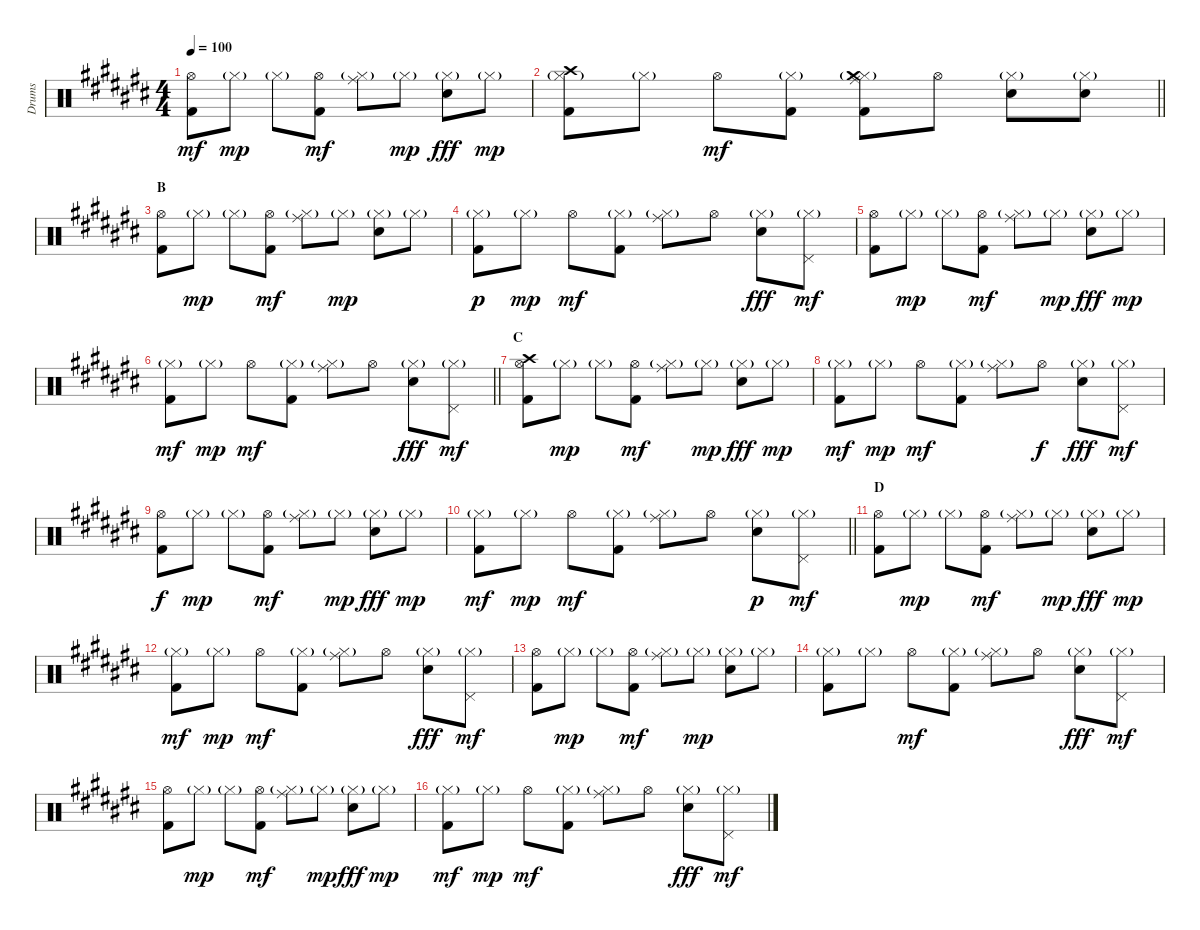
\track ("Drums" "Drums") {instrument percussion}
\staff {score}
\articulation defaults
\ts (4 4)
\tempo 100
\clef neutral
\ks c#
("Hi-Hat (open)" "Kick (hit) 2").8{dy mf} "Hi-Hat (closed)"{g}.8{dy mp} "Hi-Hat (closed)"{g}.8 ("Hi-Hat (open)" "Kick (hit) 2").8{dy mf} ("Hi-Hat (closed)"{g} "Ride (middle)").8 "Hi-Hat (closed)"{g}.8{dy mp} ("Hi-Hat (closed)"{g} "Snare (hit) 2").8{dy fff} "Hi-Hat (closed)"{g}.8{dy mp} |
\barLineRight lightlight
("Hi-Hat (closed)"{g} "Crash high (hit)" "Kick (hit) 2").8 "Hi-Hat (closed)"{g}.8 "Hi-Hat (open)".8{dy mf} ("Hi-Hat (closed)"{g} "Kick (hit) 2").8 ("Hi-Hat (closed)"{g} "Ride (middle)" "Crash medium (hit)" "Kick (hit) 2").8 "Hi-Hat (open)".8 ("Hi-Hat (closed)"{g} "Snare (hit) 2").8 ("Hi-Hat (closed)"{g} "Snare (hit) 2").8 |
\section ("" "B")
("Hi-Hat (open)" "Kick (hit) 2").8 "Hi-Hat (closed)"{g}.8{dy mp} "Hi-Hat (closed)"{g}.8 ("Hi-Hat (open)" "Kick (hit) 2").8{dy mf} ("Hi-Hat (closed)"{g} "Ride (middle)").8 "Hi-Hat (closed)"{g}.8{dy mp} ("Hi-Hat (closed)"{g} "Snare (hit) 2").8 "Hi-Hat (closed)"{g}.8 |
("Hi-Hat (closed)"{g} "Kick (hit) 2").8{dy p} "Hi-Hat (closed)"{g}.8{dy mp} "Hi-Hat (open)".8{dy mf} ("Hi-Hat (closed)"{g} "Kick (hit) 2").8 ("Hi-Hat (closed)"{g} "Ride (middle)").8 "Hi-Hat (open)".8 ("Hi-Hat (closed)"{g} "Snare (hit) 2").8{dy fff} ("Hi-Hat (closed)"{g} "Pedal Hi-Hat (hit)").8{dy mf} |
("Hi-Hat (open)" "Kick (hit) 2").8 "Hi-Hat (closed)"{g}.8{dy mp} "Hi-Hat (closed)"{g}.8 ("Hi-Hat (open)" "Kick (hit) 2").8{dy mf} ("Hi-Hat (closed)"{g} "Ride (middle)").8 "Hi-Hat (closed)"{g}.8{dy mp} ("Hi-Hat (closed)"{g} "Snare (hit) 2").8{dy fff} "Hi-Hat (closed)"{g}.8{dy mp} |
\barLineRight lightlight
("Hi-Hat (closed)"{g} "Kick (hit) 2").8{dy mf} "Hi-Hat (closed)"{g}.8{dy mp} "Hi-Hat (open)".8{dy mf} ("Hi-Hat (closed)"{g} "Kick (hit) 2").8 ("Hi-Hat (closed)"{g} "Ride (middle)").8 "Hi-Hat (open)".8 ("Hi-Hat (closed)"{g} "Snare (hit) 2").8{dy fff} ("Hi-Hat (closed)"{g} "Pedal Hi-Hat (hit)").8{dy mf} |
\section ("" "C")
("Hi-Hat (open)" "Crash high (hit)" "Kick (hit) 2").8 "Hi-Hat (closed)"{g}.8{dy mp} "Hi-Hat (closed)"{g}.8 ("Hi-Hat (open)" "Kick (hit) 2").8{dy mf} ("Hi-Hat (closed)"{g} "Ride (middle)").8 "Hi-Hat (closed)"{g}.8{dy mp} ("Hi-Hat (closed)"{g} "Snare (hit) 2").8{dy fff} "Hi-Hat (closed)"{g}.8{dy mp} |
("Hi-Hat (closed)"{g} "Kick (hit) 2").8{dy mf} "Hi-Hat (closed)"{g}.8{dy mp} "Hi-Hat (open)".8{dy mf} ("Hi-Hat (closed)"{g} "Kick (hit) 2").8 ("Hi-Hat (closed)"{g} "Ride (middle)").8 "Hi-Hat (open)".8{dy f} ("Hi-Hat (closed)"{g} "Snare (hit) 2").8{dy fff} ("Hi-Hat (closed)"{g} "Pedal Hi-Hat (hit)").8{dy mf} |
("Hi-Hat (open)" "Kick (hit) 2").8{dy f} "Hi-Hat (closed)"{g}.8{dy mp} "Hi-Hat (closed)"{g}.8 ("Hi-Hat (open)" "Kick (hit) 2").8{dy mf} ("Hi-Hat (closed)"{g} "Ride (middle)").8 "Hi-Hat (closed)"{g}.8{dy mp} ("Hi-Hat (closed)"{g} "Snare (hit) 2").8{dy fff} "Hi-Hat (closed)"{g}.8{dy mp} |
\barLineRight lightlight
("Hi-Hat (closed)"{g} "Kick (hit) 2").8{dy mf} "Hi-Hat (closed)"{g}.8{dy mp} "Hi-Hat (open)".8{dy mf} ("Hi-Hat (closed)"{g} "Kick (hit) 2").8 ("Hi-Hat (closed)"{g} "Ride (middle)").8 "Hi-Hat (open)".8 ("Hi-Hat (closed)"{g} "Electric Snare (hit)").8{dy p} ("Hi-Hat (closed)"{g} "Pedal Hi-Hat (hit)").8{dy mf} |
\section ("" "D")
("Hi-Hat (open)" "Kick (hit) 2").8 "Hi-Hat (closed)"{g}.8{dy mp} "Hi-Hat (closed)"{g}.8 ("Hi-Hat (open)" "Kick (hit) 2").8{dy mf} ("Hi-Hat (closed)"{g} "Ride (middle)").8 "Hi-Hat (closed)"{g}.8{dy mp} ("Hi-Hat (closed)"{g} "Snare (hit) 2").8{dy fff} "Hi-Hat (closed)"{g}.8{dy mp} |
("Hi-Hat (closed)"{g} "Kick (hit) 2").8{dy mf} "Hi-Hat (closed)"{g}.8{dy mp} "Hi-Hat (open)".8{dy mf} ("Hi-Hat (closed)"{g} "Kick (hit) 2").8 ("Hi-Hat (closed)"{g} "Ride (middle)").8 "Hi-Hat (open)".8 ("Hi-Hat (closed)"{g} "Snare (hit) 2").8{dy fff} ("Hi-Hat (closed)"{g} "Pedal Hi-Hat (hit)").8{dy mf} |
("Hi-Hat (open)" "Kick (hit) 2").8 "Hi-Hat (closed)"{g}.8{dy mp} "Hi-Hat (closed)"{g}.8 ("Hi-Hat (open)" "Kick (hit) 2").8{dy mf} ("Hi-Hat (closed)"{g} "Ride (middle)").8 "Hi-Hat (closed)"{g}.8{dy mp} ("Hi-Hat (closed)"{g} "Snare (hit) 2").8 "Hi-Hat (closed)"{g}.8 |
("Hi-Hat (closed)"{g} "Kick (hit) 2").8 "Hi-Hat (closed)"{g}.8 "Hi-Hat (open)".8{dy mf} ("Hi-Hat (closed)"{g} "Kick (hit) 2").8 ("Hi-Hat (closed)"{g} "Ride (middle)").8 "Hi-Hat (open)".8 ("Hi-Hat (closed)"{g} "Snare (hit) 2").8{dy fff} ("Hi-Hat (closed)"{g} "Pedal Hi-Hat (hit)").8{dy mf} |
("Hi-Hat (open)" "Kick (hit) 2").8 "Hi-Hat (closed)"{g}.8{dy mp} "Hi-Hat (closed)"{g}.8 ("Hi-Hat (open)" "Kick (hit) 2").8{dy mf} ("Hi-Hat (closed)"{g} "Ride (middle)").8 "Hi-Hat (closed)"{g}.8{dy mp} ("Hi-Hat (closed)"{g} "Snare (hit) 2").8{dy fff} "Hi-Hat (closed)"{g}.8{dy mp} |
("Hi-Hat (closed)"{g} "Kick (hit) 2").8{dy mf} "Hi-Hat (closed)"{g}.8{dy mp} "Hi-Hat (open)".8{dy mf} ("Hi-Hat (closed)"{g} "Kick (hit) 2").8 ("Hi-Hat (closed)"{g} "Ride (middle)").8 "Hi-Hat (open)".8 ("Hi-Hat (closed)"{g} "Snare (hit) 2").8{dy fff} ("Hi-Hat (closed)"{g} "Pedal Hi-Hat (hit)").8{dy mf}
